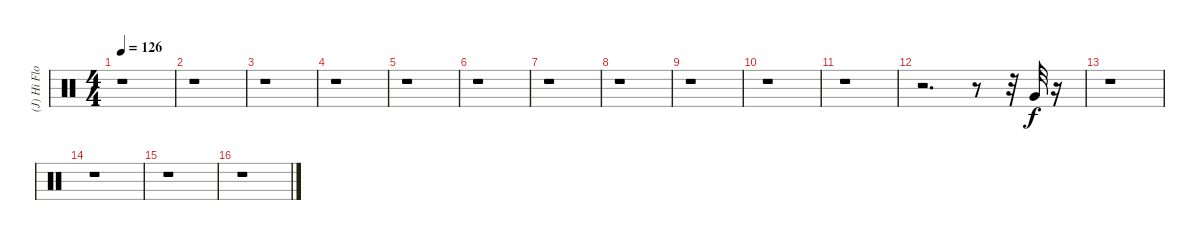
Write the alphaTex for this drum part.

\track ("(J) Hi Floor Tom" "(J) Hi Flo") {instrument percussion}
\staff {score}
\articulation defaults
\ts (4 4)
\tempo 126
\clef neutral
\ks c
r.1{dy f} |
r.1 |
r.1 |
r.1 |
r.1 |
r.1 |
r.1 |
r.1 |
r.1 |
r.1 |
r.1 |
r.2{d} r.8 r.32 "Very Low Tom (hit)".32 r.16 |
r.1 |
r.1 |
r.1 |
r.1
